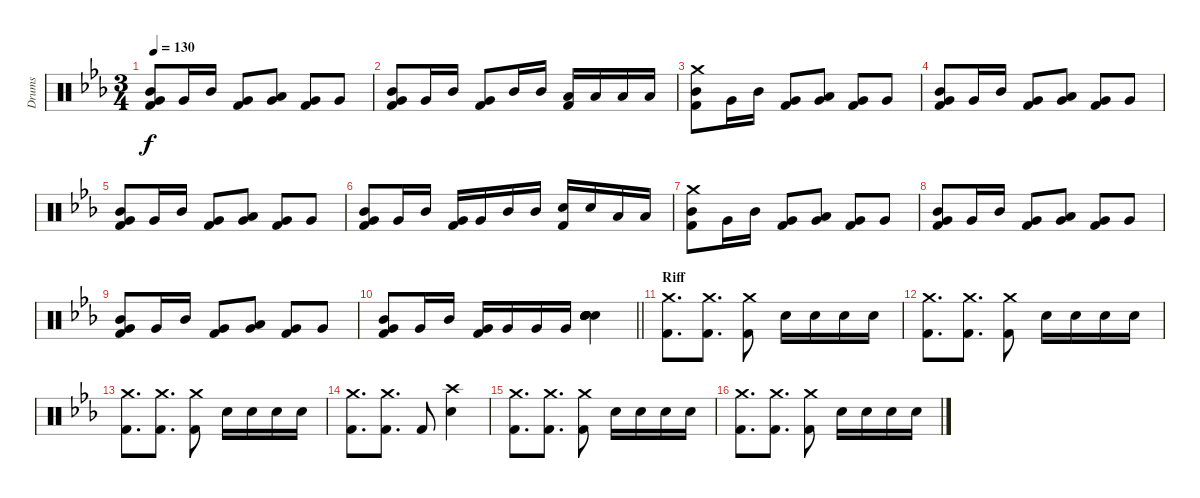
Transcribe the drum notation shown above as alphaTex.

\track ("Drums" "Drums") {instrument percussion}
\staff {score}
\articulation defaults
\ts (3 4)
\tempo 130
\clef neutral
\ks eb
("Kick (hit) 2" "Very Low Tom (hit)" "Mid Tom (hit)").8{dy f} "Very Low Tom (hit)".16 "Mid Tom (hit)".16 ("Kick (hit) 2" "Very Low Tom (hit)").8 ("Very Low Tom (hit)" "Low Tom (hit)").8 ("Kick (hit) 2" "Very Low Tom (hit)").8 "Very Low Tom (hit)".8 |
("Kick (hit) 2" "Very Low Tom (hit)" "Mid Tom (hit)").8 "Very Low Tom (hit)".16 "Mid Tom (hit)".16 ("Kick (hit) 2" "Very Low Tom (hit)").8 "Mid Tom (hit)".16 "Mid Tom (hit)".16 ("Kick (hit) 2" "Low Tom (hit)").16 "Low Tom (hit)".16 "Low Tom (hit)".16 "Low Tom (hit)".16 |
("Crash medium (hit)" "Kick (hit) 2" "Mid Tom (hit)").8 "Very Low Tom (hit)".16 "Mid Tom (hit)".16 ("Kick (hit) 2" "Very Low Tom (hit)").8 ("Very Low Tom (hit)" "Low Tom (hit)").8 ("Kick (hit) 2" "Very Low Tom (hit)").8 "Very Low Tom (hit)".8 |
("Kick (hit) 2" "Very Low Tom (hit)" "Mid Tom (hit)").8 "Very Low Tom (hit)".16 "Mid Tom (hit)".16 ("Kick (hit) 2" "Very Low Tom (hit)").8 ("Very Low Tom (hit)" "Low Tom (hit)").8 ("Kick (hit) 2" "Very Low Tom (hit)").8 "Very Low Tom (hit)".8 |
("Kick (hit) 2" "Very Low Tom (hit)" "Mid Tom (hit)").8 "Very Low Tom (hit)".16 "Mid Tom (hit)".16 ("Kick (hit) 2" "Very Low Tom (hit)").8 ("Very Low Tom (hit)" "Low Tom (hit)").8 ("Kick (hit) 2" "Very Low Tom (hit)").8 "Very Low Tom (hit)".8 |
("Kick (hit) 2" "Very Low Tom (hit)" "Mid Tom (hit)").8 "Very Low Tom (hit)".16 "Mid Tom (hit)".16 ("Kick (hit) 2" "Very Low Tom (hit)").16 "Very Low Tom (hit)".16 "Mid Tom (hit)".16 "Mid Tom (hit)".16 ("Electric Snare (hit)" "Kick (hit) 2").16 "Electric Snare (hit)".16 "Low Tom (hit)".16 "Low Tom (hit)".16 |
("Crash medium (hit)" "Kick (hit) 2" "Mid Tom (hit)").8 "Very Low Tom (hit)".16 "Mid Tom (hit)".16 ("Kick (hit) 2" "Very Low Tom (hit)").8 ("Very Low Tom (hit)" "Low Tom (hit)").8 ("Kick (hit) 2" "Very Low Tom (hit)").8 "Very Low Tom (hit)".8 |
("Kick (hit) 2" "Very Low Tom (hit)" "Mid Tom (hit)").8 "Very Low Tom (hit)".16 "Mid Tom (hit)".16 ("Kick (hit) 2" "Very Low Tom (hit)").8 ("Very Low Tom (hit)" "Low Tom (hit)").8 ("Kick (hit) 2" "Very Low Tom (hit)").8 "Very Low Tom (hit)".8 |
("Kick (hit) 2" "Very Low Tom (hit)" "Mid Tom (hit)").8 "Very Low Tom (hit)".16 "Mid Tom (hit)".16 ("Kick (hit) 2" "Very Low Tom (hit)").8 ("Very Low Tom (hit)" "Low Tom (hit)").8 ("Kick (hit) 2" "Very Low Tom (hit)").8 "Very Low Tom (hit)".8 |
\barLineRight lightlight
("Kick (hit) 2" "Very Low Tom (hit)" "Mid Tom (hit)").8 "Very Low Tom (hit)".16 "Mid Tom (hit)".16 ("Kick (hit) 2" "Very Low Tom (hit)").16 "Very Low Tom (hit)".16 "Very Low Tom (hit)".16 "Very Low Tom (hit)".16 ("Electric Snare (hit)" "Electric Snare (hit)" "Electric Snare (hit)" "Snare (hit) 2" "Snare (hit) 2").4 |
\section ("" "Riff")
("Crash medium (hit)" "Kick (hit) 2").8{d} ("Crash medium (hit)" "Kick (hit) 2").8{d} ("Crash medium (hit)" "Kick (hit) 2").8 "Electric Snare (hit)".16 "Electric Snare (hit)".16 "Electric Snare (hit)".16 "Electric Snare (hit)".16 |
("Crash medium (hit)" "Kick (hit) 2").8{d} ("Crash medium (hit)" "Kick (hit) 2").8{d} ("Crash medium (hit)" "Kick (hit) 2").8 "Electric Snare (hit)".16 "Electric Snare (hit)".16 "Electric Snare (hit)".16 "Electric Snare (hit)".16 |
("Crash medium (hit)" "Kick (hit) 2").8{d} ("Crash medium (hit)" "Kick (hit) 2").8{d} ("Crash medium (hit)" "Kick (hit) 2").8 "Electric Snare (hit)".16 "Electric Snare (hit)".16 "Electric Snare (hit)".16 "Electric Snare (hit)".16 |
("Crash medium (hit)" "Kick (hit) 2").8{d} ("Crash medium (hit)" "Kick (hit) 2").8{d} "Kick (hit) 2".8 ("Crash high (hit)" "Electric Snare (hit)").4 |
("Crash medium (hit)" "Kick (hit) 2").8{d} ("Crash medium (hit)" "Kick (hit) 2").8{d} ("Crash medium (hit)" "Kick (hit) 2").8 "Electric Snare (hit)".16 "Electric Snare (hit)".16 "Electric Snare (hit)".16 "Electric Snare (hit)".16 |
("Crash medium (hit)" "Kick (hit) 2").8{d} ("Crash medium (hit)" "Kick (hit) 2").8{d} ("Crash medium (hit)" "Kick (hit) 2").8 "Electric Snare (hit)".16 "Electric Snare (hit)".16 "Electric Snare (hit)".16 "Electric Snare (hit)".16
